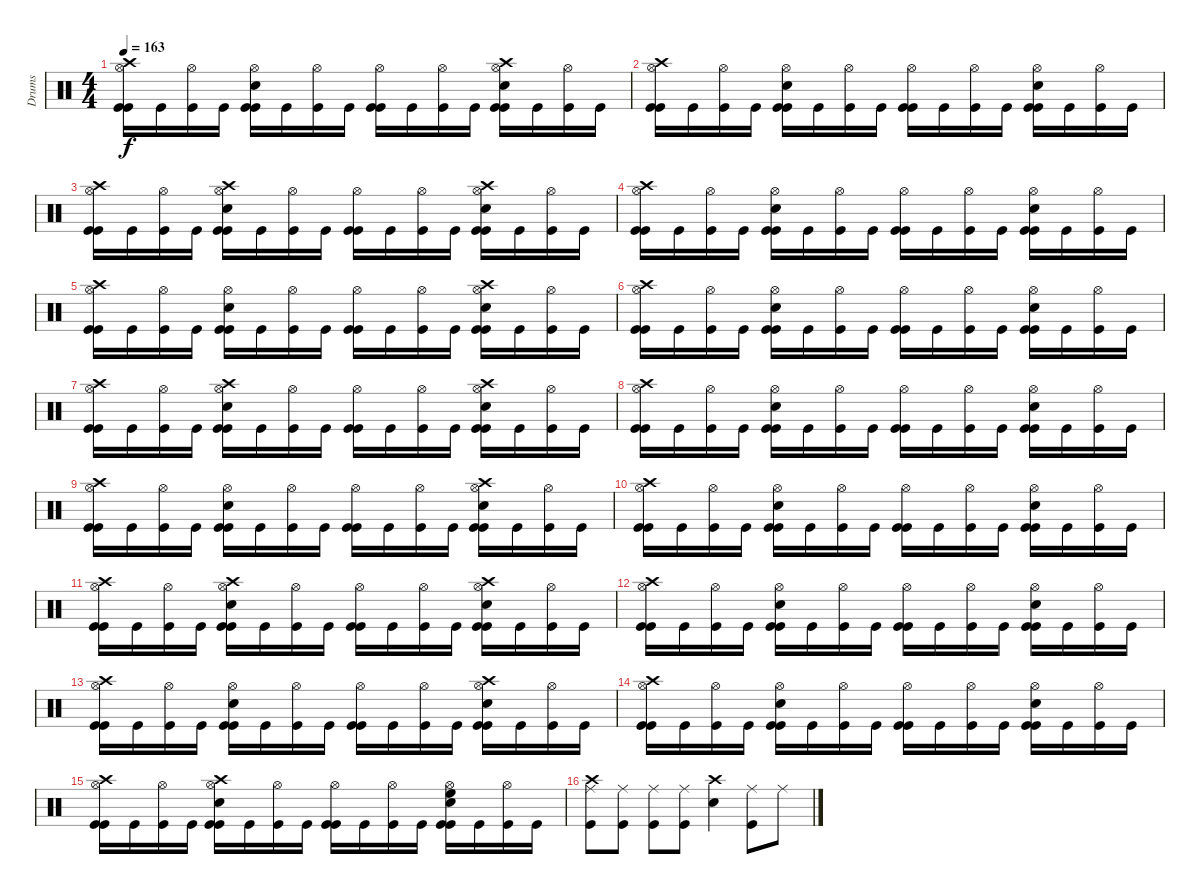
\track ("Drums" "Drums") {instrument percussion}
\staff {score}
\articulation defaults
\ts (4 4)
\tempo 163
\clef neutral
\ks c
("Crash high (hit)" "Hi-Hat (open)" "Kick (hit)" "Kick (hit)").16{dy f} "Kick (hit)".16 ("Kick (hit)" "Hi-Hat (open)").16 "Kick (hit)".16 ("Electric Snare (hit)" "Hi-Hat (open)" "Kick (hit)" "Kick (hit)").16 "Kick (hit)".16 ("Kick (hit)" "Hi-Hat (open)").16 "Kick (hit)".16 ("Hi-Hat (open)" "Kick (hit)" "Kick (hit)").16 "Kick (hit)".16 ("Kick (hit)" "Hi-Hat (open)").16 "Kick (hit)".16 ("Crash high (hit)" "Electric Snare (hit)" "Hi-Hat (open)" "Kick (hit)" "Kick (hit)").16 "Kick (hit)".16 ("Kick (hit)" "Hi-Hat (open)").16 "Kick (hit)".16 |
("Crash high (hit)" "Hi-Hat (open)" "Kick (hit)" "Kick (hit)").16 "Kick (hit)".16 ("Kick (hit)" "Hi-Hat (open)").16 "Kick (hit)".16 ("Electric Snare (hit)" "Hi-Hat (open)" "Kick (hit)" "Kick (hit)").16 "Kick (hit)".16 ("Kick (hit)" "Hi-Hat (open)").16 "Kick (hit)".16 ("Hi-Hat (open)" "Kick (hit)" "Kick (hit)").16 "Kick (hit)".16 ("Kick (hit)" "Hi-Hat (open)").16 "Kick (hit)".16 ("Electric Snare (hit)" "Hi-Hat (open)" "Kick (hit)" "Kick (hit)").16 "Kick (hit)".16 ("Kick (hit)" "Hi-Hat (open)").16 "Kick (hit)".16 |
("Crash high (hit)" "Hi-Hat (open)" "Kick (hit)" "Kick (hit)").16 "Kick (hit)".16 ("Kick (hit)" "Hi-Hat (open)").16 "Kick (hit)".16 ("Crash high (hit)" "Electric Snare (hit)" "Hi-Hat (open)" "Kick (hit)" "Kick (hit)").16 "Kick (hit)".16 ("Kick (hit)" "Hi-Hat (open)").16 "Kick (hit)".16 ("Hi-Hat (open)" "Kick (hit)" "Kick (hit)").16 "Kick (hit)".16 ("Kick (hit)" "Hi-Hat (open)").16 "Kick (hit)".16 ("Crash high (hit)" "Electric Snare (hit)" "Hi-Hat (open)" "Kick (hit)" "Kick (hit)").16 "Kick (hit)".16 ("Kick (hit)" "Hi-Hat (open)").16 "Kick (hit)".16 |
("Crash high (hit)" "Hi-Hat (open)" "Kick (hit)" "Kick (hit)").16 "Kick (hit)".16 ("Kick (hit)" "Hi-Hat (open)").16 "Kick (hit)".16 ("Electric Snare (hit)" "Hi-Hat (open)" "Kick (hit)" "Kick (hit)").16 "Kick (hit)".16 ("Kick (hit)" "Hi-Hat (open)").16 "Kick (hit)".16 ("Hi-Hat (open)" "Kick (hit)" "Kick (hit)").16 "Kick (hit)".16 ("Kick (hit)" "Hi-Hat (open)").16 "Kick (hit)".16 ("Electric Snare (hit)" "Hi-Hat (open)" "Kick (hit)" "Kick (hit)").16 "Kick (hit)".16 ("Kick (hit)" "Hi-Hat (open)").16 "Kick (hit)".16 |
("Crash high (hit)" "Hi-Hat (open)" "Kick (hit)" "Kick (hit)").16 "Kick (hit)".16 ("Kick (hit)" "Hi-Hat (open)").16 "Kick (hit)".16 ("Electric Snare (hit)" "Hi-Hat (open)" "Kick (hit)" "Kick (hit)").16 "Kick (hit)".16 ("Kick (hit)" "Hi-Hat (open)").16 "Kick (hit)".16 ("Hi-Hat (open)" "Kick (hit)" "Kick (hit)").16 "Kick (hit)".16 ("Kick (hit)" "Hi-Hat (open)").16 "Kick (hit)".16 ("Crash high (hit)" "Electric Snare (hit)" "Hi-Hat (open)" "Kick (hit)" "Kick (hit)").16 "Kick (hit)".16 ("Kick (hit)" "Hi-Hat (open)").16 "Kick (hit)".16 |
("Crash high (hit)" "Hi-Hat (open)" "Kick (hit)" "Kick (hit)").16 "Kick (hit)".16 ("Kick (hit)" "Hi-Hat (open)").16 "Kick (hit)".16 ("Electric Snare (hit)" "Hi-Hat (open)" "Kick (hit)" "Kick (hit)").16 "Kick (hit)".16 ("Kick (hit)" "Hi-Hat (open)").16 "Kick (hit)".16 ("Hi-Hat (open)" "Kick (hit)" "Kick (hit)").16 "Kick (hit)".16 ("Kick (hit)" "Hi-Hat (open)").16 "Kick (hit)".16 ("Electric Snare (hit)" "Hi-Hat (open)" "Kick (hit)" "Kick (hit)").16 "Kick (hit)".16 ("Kick (hit)" "Hi-Hat (open)").16 "Kick (hit)".16 |
("Crash high (hit)" "Hi-Hat (open)" "Kick (hit)" "Kick (hit)").16 "Kick (hit)".16 ("Kick (hit)" "Hi-Hat (open)").16 "Kick (hit)".16 ("Crash high (hit)" "Electric Snare (hit)" "Hi-Hat (open)" "Kick (hit)" "Kick (hit)").16 "Kick (hit)".16 ("Kick (hit)" "Hi-Hat (open)").16 "Kick (hit)".16 ("Hi-Hat (open)" "Kick (hit)" "Kick (hit)").16 "Kick (hit)".16 ("Kick (hit)" "Hi-Hat (open)").16 "Kick (hit)".16 ("Crash high (hit)" "Electric Snare (hit)" "Hi-Hat (open)" "Kick (hit)" "Kick (hit)").16 "Kick (hit)".16 ("Kick (hit)" "Hi-Hat (open)").16 "Kick (hit)".16 |
("Crash high (hit)" "Hi-Hat (open)" "Kick (hit)" "Kick (hit)").16 "Kick (hit)".16 ("Kick (hit)" "Hi-Hat (open)").16 "Kick (hit)".16 ("Electric Snare (hit)" "Hi-Hat (open)" "Kick (hit)" "Kick (hit)").16 "Kick (hit)".16 ("Kick (hit)" "Hi-Hat (open)").16 "Kick (hit)".16 ("Hi-Hat (open)" "Kick (hit)" "Kick (hit)").16 "Kick (hit)".16 ("Kick (hit)" "Hi-Hat (open)").16 "Kick (hit)".16 ("Electric Snare (hit)" "Hi-Hat (open)" "Kick (hit)" "Kick (hit)").16 "Kick (hit)".16 ("Kick (hit)" "Hi-Hat (open)").16 "Kick (hit)".16 |
("Crash high (hit)" "Hi-Hat (open)" "Kick (hit)" "Kick (hit)").16 "Kick (hit)".16 ("Kick (hit)" "Hi-Hat (open)").16 "Kick (hit)".16 ("Electric Snare (hit)" "Hi-Hat (open)" "Kick (hit)" "Kick (hit)").16 "Kick (hit)".16 ("Kick (hit)" "Hi-Hat (open)").16 "Kick (hit)".16 ("Hi-Hat (open)" "Kick (hit)" "Kick (hit)").16 "Kick (hit)".16 ("Kick (hit)" "Hi-Hat (open)").16 "Kick (hit)".16 ("Crash high (hit)" "Electric Snare (hit)" "Hi-Hat (open)" "Kick (hit)" "Kick (hit)").16 "Kick (hit)".16 ("Kick (hit)" "Hi-Hat (open)").16 "Kick (hit)".16 |
("Crash high (hit)" "Hi-Hat (open)" "Kick (hit)" "Kick (hit)").16 "Kick (hit)".16 ("Kick (hit)" "Hi-Hat (open)").16 "Kick (hit)".16 ("Electric Snare (hit)" "Hi-Hat (open)" "Kick (hit)" "Kick (hit)").16 "Kick (hit)".16 ("Kick (hit)" "Hi-Hat (open)").16 "Kick (hit)".16 ("Hi-Hat (open)" "Kick (hit)" "Kick (hit)").16 "Kick (hit)".16 ("Kick (hit)" "Hi-Hat (open)").16 "Kick (hit)".16 ("Electric Snare (hit)" "Hi-Hat (open)" "Kick (hit)" "Kick (hit)").16 "Kick (hit)".16 ("Kick (hit)" "Hi-Hat (open)").16 "Kick (hit)".16 |
("Crash high (hit)" "Hi-Hat (open)" "Kick (hit)" "Kick (hit)").16 "Kick (hit)".16 ("Kick (hit)" "Hi-Hat (open)").16 "Kick (hit)".16 ("Crash high (hit)" "Electric Snare (hit)" "Hi-Hat (open)" "Kick (hit)" "Kick (hit)").16 "Kick (hit)".16 ("Kick (hit)" "Hi-Hat (open)").16 "Kick (hit)".16 ("Hi-Hat (open)" "Kick (hit)" "Kick (hit)").16 "Kick (hit)".16 ("Kick (hit)" "Hi-Hat (open)").16 "Kick (hit)".16 ("Crash high (hit)" "Electric Snare (hit)" "Hi-Hat (open)" "Kick (hit)" "Kick (hit)").16 "Kick (hit)".16 ("Kick (hit)" "Hi-Hat (open)").16 "Kick (hit)".16 |
("Crash high (hit)" "Hi-Hat (open)" "Kick (hit)" "Kick (hit)").16 "Kick (hit)".16 ("Kick (hit)" "Hi-Hat (open)").16 "Kick (hit)".16 ("Electric Snare (hit)" "Hi-Hat (open)" "Kick (hit)" "Kick (hit)").16 "Kick (hit)".16 ("Kick (hit)" "Hi-Hat (open)").16 "Kick (hit)".16 ("Hi-Hat (open)" "Kick (hit)" "Kick (hit)").16 "Kick (hit)".16 ("Kick (hit)" "Hi-Hat (open)").16 "Kick (hit)".16 ("Electric Snare (hit)" "Hi-Hat (open)" "Kick (hit)" "Kick (hit)").16 "Kick (hit)".16 ("Kick (hit)" "Hi-Hat (open)").16 "Kick (hit)".16 |
("Crash high (hit)" "Hi-Hat (open)" "Kick (hit)" "Kick (hit)").16 "Kick (hit)".16 ("Kick (hit)" "Hi-Hat (open)").16 "Kick (hit)".16 ("Electric Snare (hit)" "Hi-Hat (open)" "Kick (hit)" "Kick (hit)").16 "Kick (hit)".16 ("Kick (hit)" "Hi-Hat (open)").16 "Kick (hit)".16 ("Hi-Hat (open)" "Kick (hit)" "Kick (hit)").16 "Kick (hit)".16 ("Kick (hit)" "Hi-Hat (open)").16 "Kick (hit)".16 ("Crash high (hit)" "Electric Snare (hit)" "Hi-Hat (open)" "Kick (hit)" "Kick (hit)").16 "Kick (hit)".16 ("Kick (hit)" "Hi-Hat (open)").16 "Kick (hit)".16 |
("Crash high (hit)" "Hi-Hat (open)" "Kick (hit)" "Kick (hit)").16 "Kick (hit)".16 ("Kick (hit)" "Hi-Hat (open)").16 "Kick (hit)".16 ("Electric Snare (hit)" "Hi-Hat (open)" "Kick (hit)" "Kick (hit)").16 "Kick (hit)".16 ("Kick (hit)" "Hi-Hat (open)").16 "Kick (hit)".16 ("Hi-Hat (open)" "Kick (hit)" "Kick (hit)").16 "Kick (hit)".16 ("Kick (hit)" "Hi-Hat (open)").16 "Kick (hit)".16 ("Electric Snare (hit)" "Hi-Hat (open)" "Kick (hit)" "Kick (hit)").16 "Kick (hit)".16 ("Kick (hit)" "Hi-Hat (open)").16 "Kick (hit)".16 |
("Crash high (hit)" "Hi-Hat (open)" "Kick (hit)" "Kick (hit)").16 "Kick (hit)".16 ("Kick (hit)" "Hi-Hat (open)").16 "Kick (hit)".16 ("Crash high (hit)" "Electric Snare (hit)" "Hi-Hat (open)" "Kick (hit)" "Kick (hit)").16 "Kick (hit)".16 ("Kick (hit)" "Hi-Hat (open)").16 "Kick (hit)".16 ("Hi-Hat (open)" "Kick (hit)" "Kick (hit)").16 "Kick (hit)".16 ("Kick (hit)" "Hi-Hat (open)").16 "Kick (hit)".16 ("High Floor Tom (hit)" "Electric Snare (hit)" "Hi-Hat (open)" "Kick (hit)" "Kick (hit)").16 "Kick (hit)".16 ("Kick (hit)" "Hi-Hat (open)").16 "Kick (hit)".16 |
("Crash high (hit)" "Ride (middle)" "Kick (hit)").8 ("Ride (middle)" "Kick (hit)").8 ("Ride (middle)" "Kick (hit)").8 ("Ride (middle)" "Kick (hit)").8 ("Crash high (hit)" "Snare (hit) 2").4 ("Ride (middle)" "Kick (hit)").8 "Ride (middle)".8
